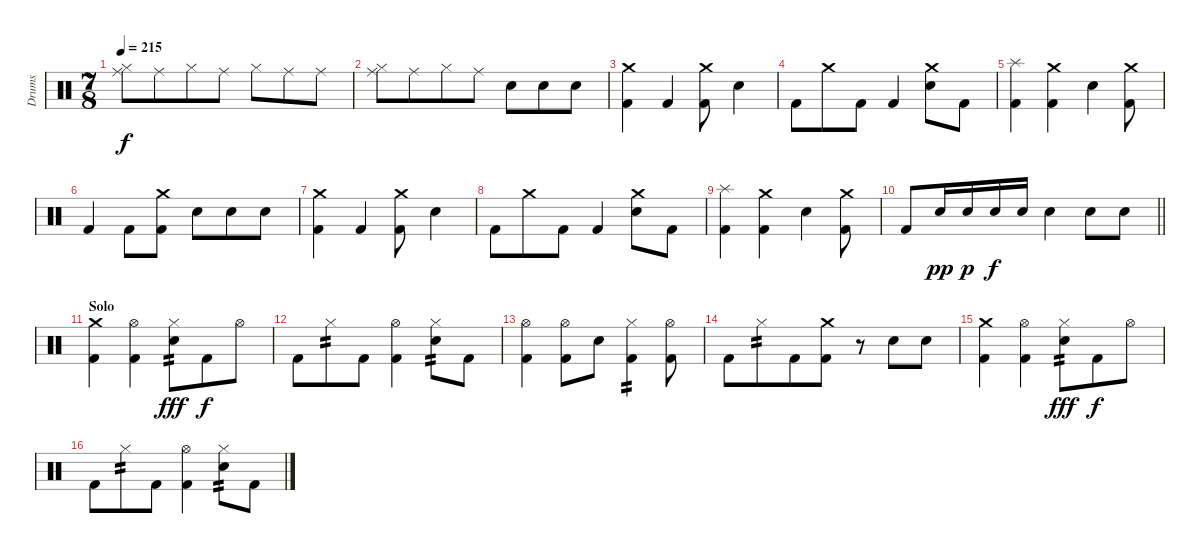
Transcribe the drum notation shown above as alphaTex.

\track ("Drums" "Drums") {instrument percussion}
\staff {score}
\articulation defaults
\ts (7 8)
\tempo 215
\clef neutral
\ks c
("Ride (middle)" "Hi-Hat (closed)").8{dy f} "Ride (middle)".8 "Hi-Hat (closed)".8 "Ride (middle)".8 "Hi-Hat (closed)".8 "Ride (middle)".8 "Ride (middle)".8 |
("Ride (middle)" "Hi-Hat (closed)").8 "Ride (middle)".8 "Hi-Hat (closed)".8 "Ride (middle)".8 "Snare (hit) 2".8 "Snare (hit) 2".8 "Snare (hit) 2".8 |
("Crash medium (hit)" "Kick (hit) 2").4 "Kick (hit) 2".4 ("Crash medium (hit)" "Kick (hit) 2").8 "Snare (hit) 2".4 |
"Kick (hit) 2".8 "Crash medium (hit)".8 "Kick (hit) 2".8 "Kick (hit) 2".4 ("Crash medium (hit)" "Snare (hit) 2").8 "Kick (hit) 2".8 |
("Splash (hit)" "Kick (hit) 2").4 ("Crash medium (hit)" "Kick (hit) 2").4 "Snare (hit) 2".4 ("Crash medium (hit)" "Kick (hit) 2").8 |
"Kick (hit) 2".4 "Kick (hit) 2".8 ("Crash medium (hit)" "Kick (hit) 2").8 "Snare (hit) 2".8 "Snare (hit) 2".8 "Snare (hit) 2".8 |
("Crash medium (hit)" "Kick (hit) 2").4 "Kick (hit) 2".4 ("Crash medium (hit)" "Kick (hit) 2").8 "Snare (hit) 2".4 |
"Kick (hit) 2".8 "Crash medium (hit)".8 "Kick (hit) 2".8 "Kick (hit) 2".4 ("Crash medium (hit)" "Snare (hit) 2").8 "Kick (hit) 2".8 |
("Splash (hit)" "Kick (hit) 2").4 ("Crash medium (hit)" "Kick (hit) 2").4 "Snare (hit) 2".4 ("Crash medium (hit)" "Kick (hit) 2").8 |
\barLineRight lightlight "Kick (hit) 2".8 "Snare (hit) 2".16{dy pp} "Snare (hit) 2".16{dy p} "Snare (hit) 2".16{dy f} "Snare (hit) 2".16 "Snare (hit) 2".4 "Snare (hit) 2".8 "Snare (hit) 2".8
|
\section ("" "Solo")
("Crash medium (hit)" "Kick (hit) 2").4 ("Hi-Hat (open)" "Kick (hit) 2").4 ("Hi-Hat (closed)" "Snare (hit) 2").8{tp 2 dy fff} "Kick (hit) 2".8{dy f} "Hi-Hat (open)".8 |
"Kick (hit) 2".8 "Hi-Hat (closed)".8{tp 2} "Kick (hit) 2".8 ("Hi-Hat (open)" "Kick (hit) 2").4 ("Hi-Hat (closed)" "Snare (hit) 2").8{tp 2} "Kick (hit) 2".8 |
("Hi-Hat (open)" "Kick (hit) 2").4 ("Hi-Hat (open)" "Kick (hit) 2").8 "Snare (hit) 2".8 ("Hi-Hat (closed)" "Kick (hit) 2").4{tp 2} ("Hi-Hat (open)" "Kick (hit) 2").8 |
"Kick (hit) 2".8 "Hi-Hat (closed)".8{tp 2} "Kick (hit) 2".8 ("Crash medium (hit)" "Kick (hit) 2").8 r.8 "Snare (hit) 2".8 "Snare (hit) 2".8 |
("Crash medium (hit)" "Kick (hit) 2").4 ("Hi-Hat (open)" "Kick (hit) 2").4 ("Hi-Hat (closed)" "Snare (hit) 2").8{tp 2 dy fff} "Kick (hit) 2".8{dy f} "Hi-Hat (open)".8 |
"Kick (hit) 2".8 "Hi-Hat (closed)".8{tp 2} "Kick (hit) 2".8 ("Hi-Hat (open)" "Kick (hit) 2").4 ("Hi-Hat (closed)" "Snare (hit) 2").8{tp 2} "Kick (hit) 2".8
